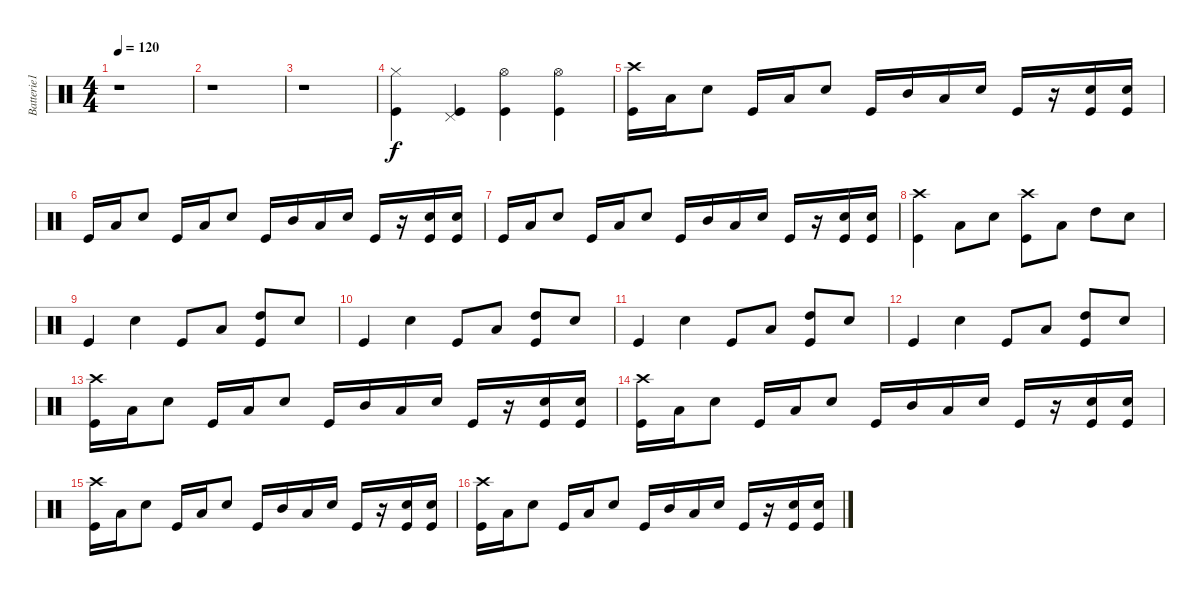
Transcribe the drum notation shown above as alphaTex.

\track ("Batterie1" "Batterie1") {instrument percussion}
\staff {score}
\articulation defaults
\ts (4 4)
\tempo 120
\clef neutral
\ks c
r.1{dy f} |
r.1 |
r.1 |
("Hi-Hat (closed)" "Kick (hit)").4 ("Pedal Hi-Hat (hit)" "Kick (hit)").4 ("Hi-Hat (open)" "Kick (hit)").4 ("Hi-Hat (open)" "Kick (hit)").4 |
("Crash high (hit)" "Kick (hit)").16 "Low Floor Tom (hit)".16 "Electric Snare (hit)".8 "Kick (hit)".16 "Low Floor Tom (hit)".16 "Electric Snare (hit)".8 "Kick (hit)".16 "Mid Tom (hit)".16 "Low Floor Tom (hit)".16 "Electric Snare (hit)".16 "Kick (hit)".16 r.16 ("Electric Snare (hit)" "Kick (hit)").16 ("Electric Snare (hit)" "Kick (hit)").16 |
"Kick (hit)".16 "Low Floor Tom (hit)".16 "Electric Snare (hit)".8 "Kick (hit)".16 "Low Floor Tom (hit)".16 "Electric Snare (hit)".8 "Kick (hit)".16 "Mid Tom (hit)".16 "Low Floor Tom (hit)".16 "Electric Snare (hit)".16 "Kick (hit)".16 r.16 ("Electric Snare (hit)" "Kick (hit)").16 ("Electric Snare (hit)" "Kick (hit)").16 |
"Kick (hit)".16 "Low Floor Tom (hit)".16 "Electric Snare (hit)".8 "Kick (hit)".16 "Low Floor Tom (hit)".16 "Electric Snare (hit)".8 "Kick (hit)".16 "Mid Tom (hit)".16 "Low Floor Tom (hit)".16 "Electric Snare (hit)".16 "Kick (hit)".16 r.16 ("Electric Snare (hit)" "Kick (hit)").16 ("Electric Snare (hit)" "Kick (hit)").16 |
("Crash high (hit)" "Kick (hit)").4 "Low Floor Tom (hit)".8 "Electric Snare (hit)".8 ("Crash high (hit)" "Kick (hit)").8 "Low Floor Tom (hit)".8 "High Tom (hit)".8 "Electric Snare (hit)".8 |
"Kick (hit)".4 "Electric Snare (hit)".4 "Kick (hit)".8 "Low Floor Tom (hit)".8 ("High Tom (hit)" "Kick (hit)").8 "Electric Snare (hit)".8 |
"Kick (hit)".4 "Electric Snare (hit)".4 "Kick (hit)".8 "Low Floor Tom (hit)".8 ("High Tom (hit)" "Kick (hit)").8 "Electric Snare (hit)".8 |
"Kick (hit)".4 "Electric Snare (hit)".4 "Kick (hit)".8 "Low Floor Tom (hit)".8 ("High Tom (hit)" "Kick (hit)").8 "Electric Snare (hit)".8 |
"Kick (hit)".4 "Electric Snare (hit)".4 "Kick (hit)".8 "Low Floor Tom (hit)".8 ("High Tom (hit)" "Kick (hit)").8 "Electric Snare (hit)".8 |
("Crash high (hit)" "Kick (hit)").16 "Low Floor Tom (hit)".16 "Electric Snare (hit)".8 "Kick (hit)".16 "Low Floor Tom (hit)".16 "Electric Snare (hit)".8 "Kick (hit)".16 "Mid Tom (hit)".16 "Low Floor Tom (hit)".16 "Electric Snare (hit)".16 "Kick (hit)".16 r.16 ("Electric Snare (hit)" "Kick (hit)").16 ("Electric Snare (hit)" "Kick (hit)").16 |
("Crash high (hit)" "Kick (hit)").16 "Low Floor Tom (hit)".16 "Electric Snare (hit)".8 "Kick (hit)".16 "Low Floor Tom (hit)".16 "Electric Snare (hit)".8 "Kick (hit)".16 "Mid Tom (hit)".16 "Low Floor Tom (hit)".16 "Electric Snare (hit)".16 "Kick (hit)".16 r.16 ("Electric Snare (hit)" "Kick (hit)").16 ("Electric Snare (hit)" "Kick (hit)").16 |
("Crash high (hit)" "Kick (hit)").16 "Low Floor Tom (hit)".16 "Electric Snare (hit)".8 "Kick (hit)".16 "Low Floor Tom (hit)".16 "Electric Snare (hit)".8 "Kick (hit)".16 "Mid Tom (hit)".16 "Low Floor Tom (hit)".16 "Electric Snare (hit)".16 "Kick (hit)".16 r.16 ("Electric Snare (hit)" "Kick (hit)").16 ("Electric Snare (hit)" "Kick (hit)").16 |
("Crash high (hit)" "Kick (hit)").16 "Low Floor Tom (hit)".16 "Electric Snare (hit)".8 "Kick (hit)".16 "Low Floor Tom (hit)".16 "Electric Snare (hit)".8 "Kick (hit)".16 "Mid Tom (hit)".16 "Low Floor Tom (hit)".16 "Electric Snare (hit)".16 "Kick (hit)".16 r.16 ("Electric Snare (hit)" "Kick (hit)").16 ("Electric Snare (hit)" "Kick (hit)").16
